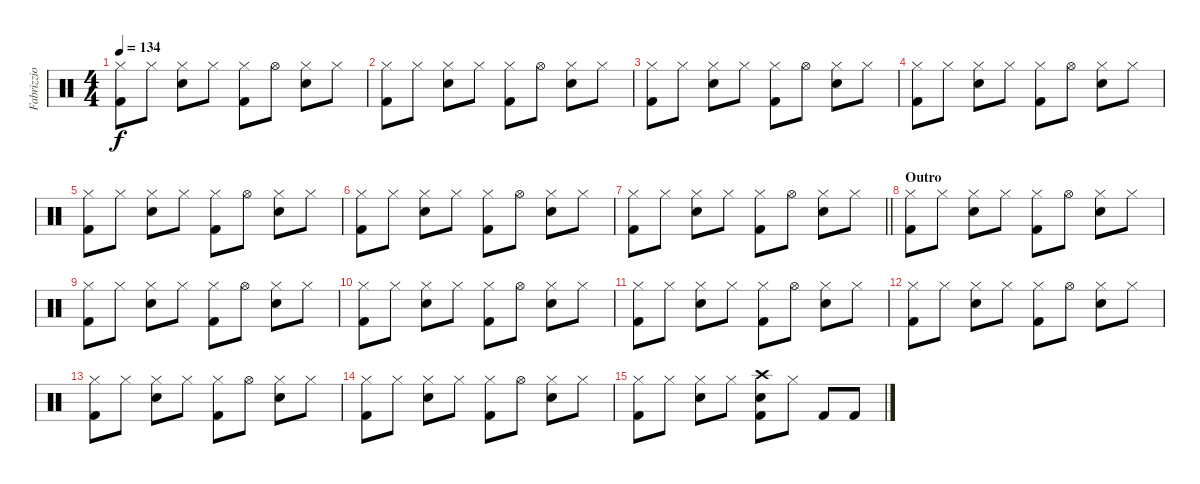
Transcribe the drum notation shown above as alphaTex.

\track ("Fabrizzio" "Fabrizzio") {instrument percussion}
\staff {score}
\articulation defaults
\ts (4 4)
\tempo 134
\clef neutral
\ks c
("Hi-Hat (closed)" "Kick (hit) 2").8{dy f} "Hi-Hat (closed)".8 ("Hi-Hat (closed)" "Snare (hit) 2").8 "Hi-Hat (closed)".8 ("Hi-Hat (closed)" "Kick (hit) 2").8 "Hi-Hat (open)".8 ("Hi-Hat (closed)" "Snare (hit) 2").8 "Hi-Hat (closed)".8 |
("Hi-Hat (closed)" "Kick (hit) 2").8 "Hi-Hat (closed)".8 ("Hi-Hat (closed)" "Snare (hit) 2").8 "Hi-Hat (closed)".8 ("Hi-Hat (closed)" "Kick (hit) 2").8 "Hi-Hat (open)".8 ("Hi-Hat (closed)" "Snare (hit) 2").8 "Hi-Hat (closed)".8 |
("Hi-Hat (closed)" "Kick (hit) 2").8 "Hi-Hat (closed)".8 ("Hi-Hat (closed)" "Snare (hit) 2").8 "Hi-Hat (closed)".8 ("Hi-Hat (closed)" "Kick (hit) 2").8 "Hi-Hat (open)".8 ("Hi-Hat (closed)" "Snare (hit) 2").8 "Hi-Hat (closed)".8 |
("Hi-Hat (closed)" "Kick (hit) 2").8 "Hi-Hat (closed)".8 ("Hi-Hat (closed)" "Snare (hit) 2").8 "Hi-Hat (closed)".8 ("Hi-Hat (closed)" "Kick (hit) 2").8 "Hi-Hat (open)".8 ("Hi-Hat (closed)" "Snare (hit) 2").8 "Hi-Hat (closed)".8 |
("Hi-Hat (closed)" "Kick (hit) 2").8 "Hi-Hat (closed)".8 ("Hi-Hat (closed)" "Snare (hit) 2").8 "Hi-Hat (closed)".8 ("Hi-Hat (closed)" "Kick (hit) 2").8 "Hi-Hat (open)".8 ("Hi-Hat (closed)" "Snare (hit) 2").8 "Hi-Hat (closed)".8 |
("Hi-Hat (closed)" "Kick (hit) 2").8 "Hi-Hat (closed)".8 ("Hi-Hat (closed)" "Snare (hit) 2").8 "Hi-Hat (closed)".8 ("Hi-Hat (closed)" "Kick (hit) 2").8 "Hi-Hat (open)".8 ("Hi-Hat (closed)" "Snare (hit) 2").8 "Hi-Hat (closed)".8 |
\barLineRight lightlight
("Hi-Hat (closed)" "Kick (hit) 2").8 "Hi-Hat (closed)".8 ("Hi-Hat (closed)" "Snare (hit) 2").8 "Hi-Hat (closed)".8 ("Hi-Hat (closed)" "Kick (hit) 2").8 "Hi-Hat (open)".8 ("Hi-Hat (closed)" "Snare (hit) 2").8 "Hi-Hat (closed)".8 |
\section ("" "Outro")
("Hi-Hat (closed)" "Kick (hit) 2").8 "Hi-Hat (closed)".8 ("Hi-Hat (closed)" "Snare (hit) 2").8 "Hi-Hat (closed)".8 ("Hi-Hat (closed)" "Kick (hit) 2").8 "Hi-Hat (open)".8 ("Hi-Hat (closed)" "Snare (hit) 2").8 "Hi-Hat (closed)".8 |
("Hi-Hat (closed)" "Kick (hit) 2").8 "Hi-Hat (closed)".8 ("Hi-Hat (closed)" "Snare (hit) 2").8 "Hi-Hat (closed)".8 ("Hi-Hat (closed)" "Kick (hit) 2").8 "Hi-Hat (open)".8 ("Hi-Hat (closed)" "Snare (hit) 2").8 "Hi-Hat (closed)".8 |
("Hi-Hat (closed)" "Kick (hit) 2").8 "Hi-Hat (closed)".8 ("Hi-Hat (closed)" "Snare (hit) 2").8 "Hi-Hat (closed)".8 ("Hi-Hat (closed)" "Kick (hit) 2").8 "Hi-Hat (open)".8 ("Hi-Hat (closed)" "Snare (hit) 2").8 "Hi-Hat (closed)".8 |
("Hi-Hat (closed)" "Kick (hit) 2").8 "Hi-Hat (closed)".8 ("Hi-Hat (closed)" "Snare (hit) 2").8 "Hi-Hat (closed)".8 ("Hi-Hat (closed)" "Kick (hit) 2").8 "Hi-Hat (open)".8 ("Hi-Hat (closed)" "Snare (hit) 2").8 "Hi-Hat (closed)".8 |
("Hi-Hat (closed)" "Kick (hit) 2").8 "Hi-Hat (closed)".8 ("Hi-Hat (closed)" "Snare (hit) 2").8 "Hi-Hat (closed)".8 ("Hi-Hat (closed)" "Kick (hit) 2").8 "Hi-Hat (open)".8 ("Hi-Hat (closed)" "Snare (hit) 2").8 "Hi-Hat (closed)".8 |
("Hi-Hat (closed)" "Kick (hit) 2").8 "Hi-Hat (closed)".8 ("Hi-Hat (closed)" "Snare (hit) 2").8 "Hi-Hat (closed)".8 ("Hi-Hat (closed)" "Kick (hit) 2").8 "Hi-Hat (open)".8 ("Hi-Hat (closed)" "Snare (hit) 2").8 "Hi-Hat (closed)".8 |
("Hi-Hat (closed)" "Kick (hit) 2").8 "Hi-Hat (closed)".8 ("Hi-Hat (closed)" "Snare (hit) 2").8 "Hi-Hat (closed)".8 ("Hi-Hat (closed)" "Kick (hit) 2").8 "Hi-Hat (open)".8 ("Hi-Hat (closed)" "Snare (hit) 2").8 "Hi-Hat (closed)".8 |
("Hi-Hat (closed)" "Kick (hit) 2").8 "Hi-Hat (closed)".8 ("Hi-Hat (closed)" "Snare (hit) 2").8 "Hi-Hat (closed)".8 ("Crash high (hit)" "Snare (hit) 2" "Kick (hit) 2").8 "Hi-Hat (closed)".8 "Kick (hit) 2".8 "Kick (hit) 2".8
